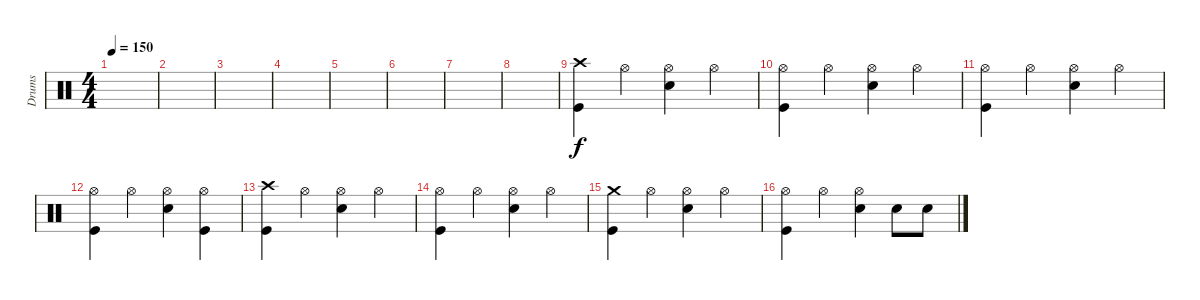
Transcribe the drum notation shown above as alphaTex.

\track ("Drums" "Drums") {instrument percussion}
\staff {score}
\articulation defaults
\ts (4 4)
\tempo 150
\clef neutral
\ks c
|
|
|
|
|
|
|
|
("Crash high (hit)" "Kick (hit)").4 "Hi-Hat (open)".4 ("Hi-Hat (open)" "Snare (hit) 2").4 "Hi-Hat (open)".4 |
("Hi-Hat (open)" "Kick (hit)").4 "Hi-Hat (open)".4 ("Hi-Hat (open)" "Snare (hit) 2").4 "Hi-Hat (open)".4 |
("Hi-Hat (open)" "Kick (hit)").4 "Hi-Hat (open)".4 ("Hi-Hat (open)" "Snare (hit) 2").4 "Hi-Hat (open)".4 |
("Hi-Hat (open)" "Kick (hit)").4 "Hi-Hat (open)".4 ("Hi-Hat (open)" "Snare (hit) 2").4 ("Hi-Hat (open)" "Kick (hit)").4 |
("Crash high (hit)" "Kick (hit)").4 "Hi-Hat (open)".4 ("Hi-Hat (open)" "Snare (hit) 2").4 "Hi-Hat (open)".4 |
("Hi-Hat (open)" "Kick (hit)").4 "Hi-Hat (open)".4 ("Hi-Hat (open)" "Snare (hit) 2").4 "Hi-Hat (open)".4 |
("Crash medium (hit)" "Kick (hit)").4 "Hi-Hat (open)".4 ("Hi-Hat (open)" "Snare (hit) 2").4 "Hi-Hat (open)".4 |
("Hi-Hat (open)" "Kick (hit)").4 "Hi-Hat (open)".4 ("Hi-Hat (open)" "Snare (hit) 2").4 "Snare (hit) 2".8 "Snare (hit) 2".8
